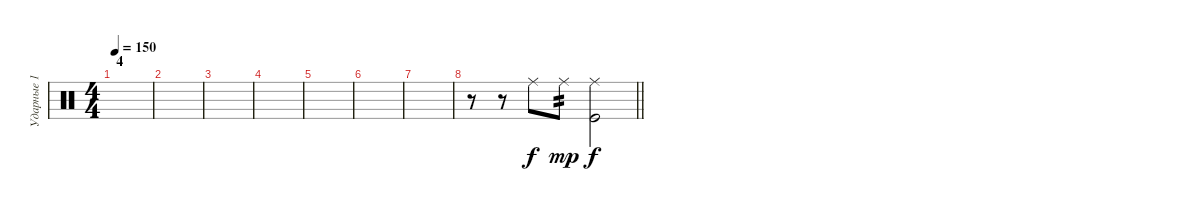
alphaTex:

\track ("Ударные 1" "Ударные 1") {instrument percussion}
\staff {score}
\articulation defaults
\ts (4 4)
\section ("" "4")
\tempo 150
\clef neutral
\ks c
|
|
|
|
|
|
|
\barLineRight lightlight
r.8 r.8 "Ride (middle)".8 "Ride (middle)".8{tp 2 dy mp} ("Ride (middle)" "Kick (hit)").2{dy f}
